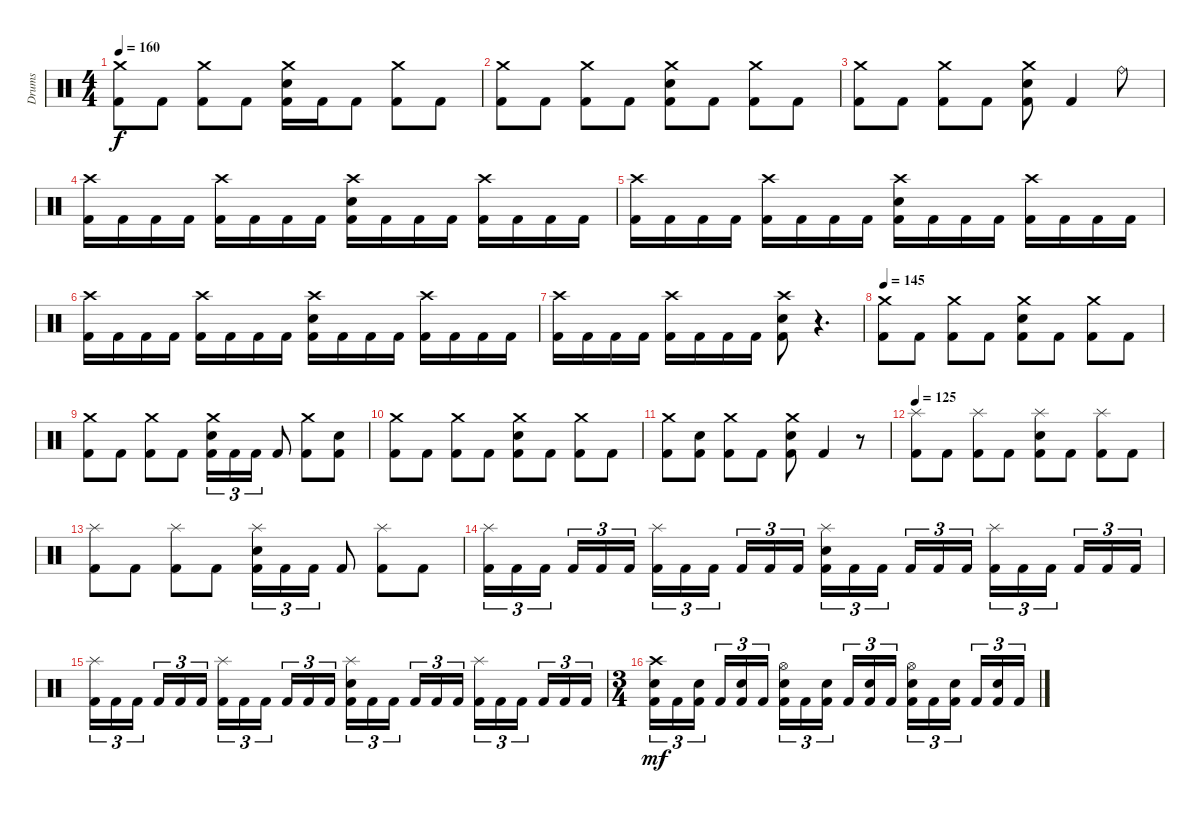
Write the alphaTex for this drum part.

\track ("Drums" "Drums") {instrument percussion}
\staff {score}
\articulation defaults
\ts (4 4)
\tempo 160
\clef neutral
\ks c
("Crash medium (hit)" "Kick (hit) 2").8{dy f} "Kick (hit) 2".8 ("Crash medium (hit)" "Kick (hit) 2").8 "Kick (hit) 2".8 ("Crash medium (hit)" "Electric Snare (hit)" "Kick (hit) 2").16 "Kick (hit) 2".16 "Kick (hit) 2".8 ("Crash medium (hit)" "Kick (hit) 2").8 "Kick (hit) 2".8 |
("Crash medium (hit)" "Kick (hit) 2").8 "Kick (hit) 2".8 ("Crash medium (hit)" "Kick (hit) 2").8 "Kick (hit) 2".8 ("Crash medium (hit)" "Electric Snare (hit)" "Kick (hit) 2").8 "Kick (hit) 2".8 ("Crash medium (hit)" "Kick (hit) 2").8 "Kick (hit) 2".8 |
("Crash medium (hit)" "Kick (hit) 2").8 "Kick (hit) 2".8 ("Crash medium (hit)" "Kick (hit) 2").8 "Kick (hit) 2".8 ("Crash medium (hit)" "Electric Snare (hit)" "Kick (hit) 2").8 "Kick (hit) 2".4 "Ride (bell)".8 |
("Crash high (hit)" "Kick (hit) 2").16 "Kick (hit) 2".16 "Kick (hit) 2".16 "Kick (hit) 2".16 ("Crash high (hit)" "Kick (hit) 2").16 "Kick (hit) 2".16 "Kick (hit) 2".16 "Kick (hit) 2".16 ("Crash high (hit)" "Electric Snare (hit)" "Kick (hit) 2").16 "Kick (hit) 2".16 "Kick (hit) 2".16 "Kick (hit) 2".16 ("Crash high (hit)" "Kick (hit) 2").16 "Kick (hit) 2".16 "Kick (hit) 2".16 "Kick (hit) 2".16 |
("Crash high (hit)" "Kick (hit) 2").16 "Kick (hit) 2".16 "Kick (hit) 2".16 "Kick (hit) 2".16 ("Crash high (hit)" "Kick (hit) 2").16 "Kick (hit) 2".16 "Kick (hit) 2".16 "Kick (hit) 2".16 ("Crash high (hit)" "Electric Snare (hit)" "Kick (hit) 2").16 "Kick (hit) 2".16 "Kick (hit) 2".16 "Kick (hit) 2".16 ("Crash high (hit)" "Kick (hit) 2").16 "Kick (hit) 2".16 "Kick (hit) 2".16 "Kick (hit) 2".16 |
("Crash high (hit)" "Kick (hit) 2").16 "Kick (hit) 2".16 "Kick (hit) 2".16 "Kick (hit) 2".16 ("Crash high (hit)" "Kick (hit) 2").16 "Kick (hit) 2".16 "Kick (hit) 2".16 "Kick (hit) 2".16 ("Crash high (hit)" "Electric Snare (hit)" "Kick (hit) 2").16 "Kick (hit) 2".16 "Kick (hit) 2".16 "Kick (hit) 2".16 ("Crash high (hit)" "Kick (hit) 2").16 "Kick (hit) 2".16 "Kick (hit) 2".16 "Kick (hit) 2".16 |
("Crash high (hit)" "Kick (hit) 2").16 "Kick (hit) 2".16 "Kick (hit) 2".16 "Kick (hit) 2".16 ("Crash high (hit)" "Kick (hit) 2").16 "Kick (hit) 2".16 "Kick (hit) 2".16 "Kick (hit) 2".16 ("Crash high (hit)" "Electric Snare (hit)" "Kick (hit) 2").8 r.4{d} |
\tempo 145
("Crash medium (hit)" "Kick (hit) 2").8 "Kick (hit) 2".8 ("Crash medium (hit)" "Kick (hit) 2").8 "Kick (hit) 2".8 ("Crash medium (hit)" "Electric Snare (hit)" "Kick (hit) 2").8 "Kick (hit) 2".8 ("Crash medium (hit)" "Kick (hit) 2").8 "Kick (hit) 2".8 |
("Crash medium (hit)" "Kick (hit) 2").8 "Kick (hit) 2".8 ("Crash medium (hit)" "Kick (hit) 2").8 "Kick (hit) 2".8 ("Crash medium (hit)" "Electric Snare (hit)" "Kick (hit) 2").16{tu (3 2)} "Kick (hit) 2".16{tu (3 2)} "Kick (hit) 2".16{tu (3 2)} "Kick (hit) 2".8 ("Crash medium (hit)" "Kick (hit) 2").8 ("Electric Snare (hit)" "Kick (hit) 2").8 |
("Crash medium (hit)" "Kick (hit) 2").8 "Kick (hit) 2".8 ("Crash medium (hit)" "Kick (hit) 2").8 "Kick (hit) 2".8 ("Crash medium (hit)" "Electric Snare (hit)" "Kick (hit) 2").8 "Kick (hit) 2".8 ("Crash medium (hit)" "Kick (hit) 2").8 "Kick (hit) 2".8 |
("Crash medium (hit)" "Kick (hit) 2").8 ("Electric Snare (hit)" "Kick (hit) 2").8 ("Crash medium (hit)" "Kick (hit) 2").8 "Kick (hit) 2".8 ("Crash medium (hit)" "Electric Snare (hit)" "Kick (hit) 2").8 "Kick (hit) 2".4 r.8 |
\tempo 125
("Splash (hit)" "Kick (hit) 2").8 "Kick (hit) 2".8 ("Splash (hit)" "Kick (hit) 2").8 "Kick (hit) 2".8 ("Splash (hit)" "Electric Snare (hit)" "Kick (hit) 2").8 "Kick (hit) 2".8 ("Splash (hit)" "Kick (hit) 2").8 "Kick (hit) 2".8 |
("Splash (hit)" "Kick (hit) 2").8 "Kick (hit) 2".8 ("Splash (hit)" "Kick (hit) 2").8 "Kick (hit) 2".8 ("Splash (hit)" "Electric Snare (hit)" "Kick (hit) 2").16{tu (3 2)} "Kick (hit) 2".16{tu (3 2)} "Kick (hit) 2".16{tu (3 2)} "Kick (hit) 2".8 ("Splash (hit)" "Kick (hit) 2").8 "Kick (hit) 2".8 |
("Splash (hit)" "Kick (hit) 2").16{tu (3 2)} "Kick (hit) 2".16{tu (3 2)} "Kick (hit) 2".16{tu (3 2) beam splitsecondary} "Kick (hit) 2".16{tu (3 2)} "Kick (hit) 2".16{tu (3 2)} "Kick (hit) 2".16{tu (3 2)} ("Splash (hit)" "Kick (hit) 2").16{tu (3 2)} "Kick (hit) 2".16{tu (3 2)} "Kick (hit) 2".16{tu (3 2) beam splitsecondary} "Kick (hit) 2".16{tu (3 2)} "Kick (hit) 2".16{tu (3 2)} "Kick (hit) 2".16{tu (3 2)} ("Splash (hit)" "Electric Snare (hit)" "Kick (hit) 2").16{tu (3 2)} "Kick (hit) 2".16{tu (3 2)} "Kick (hit) 2".16{tu (3 2) beam splitsecondary} "Kick (hit) 2".16{tu (3 2)} "Kick (hit) 2".16{tu (3 2)} "Kick (hit) 2".16{tu (3 2)} ("Splash (hit)" "Kick (hit) 2").16{tu (3 2)} "Kick (hit) 2".16{tu (3 2)} "Kick (hit) 2".16{tu (3 2) beam splitsecondary} "Kick (hit) 2".16{tu (3 2)} "Kick (hit) 2".16{tu (3 2)} "Kick (hit) 2".16{tu (3 2)} |
("Splash (hit)" "Kick (hit) 2").16{tu (3 2)} "Kick (hit) 2".16{tu (3 2)} "Kick (hit) 2".16{tu (3 2) beam splitsecondary} "Kick (hit) 2".16{tu (3 2)} "Kick (hit) 2".16{tu (3 2)} "Kick (hit) 2".16{tu (3 2)} ("Splash (hit)" "Kick (hit) 2").16{tu (3 2)} "Kick (hit) 2".16{tu (3 2)} "Kick (hit) 2".16{tu (3 2) beam splitsecondary} "Kick (hit) 2".16{tu (3 2)} "Kick (hit) 2".16{tu (3 2)} "Kick (hit) 2".16{tu (3 2)} ("Splash (hit)" "Electric Snare (hit)" "Kick (hit) 2").16{tu (3 2)} "Kick (hit) 2".16{tu (3 2)} "Kick (hit) 2".16{tu (3 2) beam splitsecondary} "Kick (hit) 2".16{tu (3 2)} "Kick (hit) 2".16{tu (3 2)} "Kick (hit) 2".16{tu (3 2)} ("Splash (hit)" "Kick (hit) 2").16{tu (3 2)} "Kick (hit) 2".16{tu (3 2)} "Kick (hit) 2".16{tu (3 2) beam splitsecondary} "Kick (hit) 2".16{tu (3 2)} "Kick (hit) 2".16{tu (3 2)} "Kick (hit) 2".16{tu (3 2)} |
\ts (3 4)
("Crash high (hit)" "Electric Snare (hit)" "Kick (hit) 2").16{tu (3 2) dy mf} "Kick (hit) 2".16{tu (3 2)} ("Electric Snare (hit)" "Kick (hit) 2").16{tu (3 2) beam splitsecondary} "Kick (hit) 2".16{tu (3 2)} ("Electric Snare (hit)" "Kick (hit) 2").16{tu (3 2)} "Kick (hit) 2".16{tu (3 2)} ("Hi-Hat (open)" "Electric Snare (hit)" "Kick (hit) 2").16{tu (3 2)} "Kick (hit) 2".16{tu (3 2)} ("Electric Snare (hit)" "Kick (hit) 2").16{tu (3 2) beam splitsecondary} "Kick (hit) 2".16{tu (3 2)} ("Electric Snare (hit)" "Kick (hit) 2").16{tu (3 2)} "Kick (hit) 2".16{tu (3 2)} ("Hi-Hat (open)" "Electric Snare (hit)" "Kick (hit) 2").16{tu (3 2)} "Kick (hit) 2".16{tu (3 2)} ("Electric Snare (hit)" "Kick (hit) 2").16{tu (3 2) beam splitsecondary} "Kick (hit) 2".16{tu (3 2)} ("Electric Snare (hit)" "Kick (hit) 2").16{tu (3 2)} "Kick (hit) 2".16{tu (3 2)}
